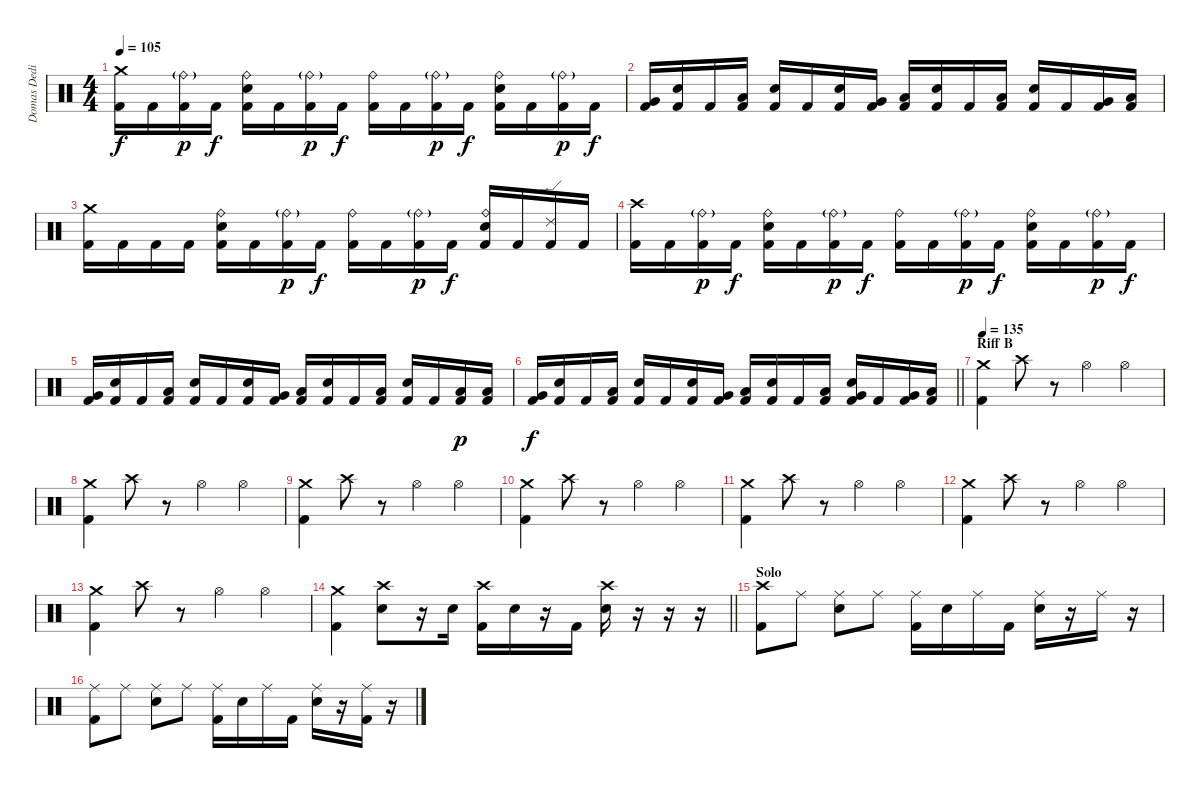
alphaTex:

\track ("Domas Dedinas" "Domas Dedi") {instrument percussion}
\staff {score}
\articulation defaults
\ts (4 4)
\tempo 105
\clef neutral
\ks c
("Crash medium (hit)" "Kick (hit) 2").16{dy f} "Kick (hit) 2".16 ("Ride (bell)"{g} "Kick (hit) 2").16{dy p} "Kick (hit) 2".16{dy f} ("Ride (bell)" "Snare (hit) 2" "Kick (hit) 2").16 "Kick (hit) 2".16 ("Ride (bell)"{g} "Kick (hit) 2").16{dy p} "Kick (hit) 2".16{dy f} ("Ride (bell)" "Kick (hit) 2").16 "Kick (hit) 2".16 ("Ride (bell)"{g} "Kick (hit) 2").16{dy p} "Kick (hit) 2".16{dy f} ("Ride (bell)" "Snare (hit) 2" "Kick (hit) 2").16 "Kick (hit) 2".16 ("Ride (bell)"{g} "Kick (hit) 2").16{dy p} "Kick (hit) 2".16{dy f} |
("Very Low Tom (hit)" "Kick (hit) 2").16 ("Snare (hit) 2" "Kick (hit) 2").16 "Kick (hit) 2".16 ("Low Floor Tom (hit)" "Kick (hit) 2").16 ("Snare (hit) 2" "Kick (hit) 2").16 "Kick (hit) 2".16 ("Snare (hit) 2" "Kick (hit) 2").16 ("Very Low Tom (hit)" "Kick (hit) 2").16 ("Low Floor Tom (hit)" "Kick (hit) 2").16 ("Snare (hit) 2" "Kick (hit) 2").16 "Kick (hit) 2".16 ("Low Floor Tom (hit)" "Kick (hit) 2").16 ("Snare (hit) 2" "Kick (hit) 2").16 "Kick (hit) 2".16 ("Very Low Tom (hit)" "Kick (hit) 2").16 ("Low Floor Tom (hit)" "Kick (hit) 2").16 |
("Crash medium (hit)" "Kick (hit) 2").16 "Kick (hit) 2".16 "Kick (hit) 2".16 "Kick (hit) 2".16 ("Ride (bell)" "Snare (hit) 2" "Kick (hit) 2").16 "Kick (hit) 2".16 ("Ride (bell)"{g} "Kick (hit) 2").16{dy p} "Kick (hit) 2".16{dy f} ("Ride (bell)" "Kick (hit) 2").16 "Kick (hit) 2".16 ("Ride (bell)"{g} "Kick (hit) 2").16{dy p} "Kick (hit) 2".16{dy f} ("Ride (bell)" "Snare (hit) 2" "Kick (hit) 2").16 "Kick (hit) 2".16 ("Ride (edge) 2" "Kick (hit) 2").16 "Kick (hit) 2".16 |
("Crash high (hit)" "Kick (hit) 2").16 "Kick (hit) 2".16 ("Ride (bell)"{g} "Kick (hit) 2").16{dy p} "Kick (hit) 2".16{dy f} ("Ride (bell)" "Snare (hit) 2" "Kick (hit) 2").16 "Kick (hit) 2".16 ("Ride (bell)"{g} "Kick (hit) 2").16{dy p} "Kick (hit) 2".16{dy f} ("Ride (bell)" "Kick (hit) 2").16 "Kick (hit) 2".16 ("Ride (bell)"{g} "Kick (hit) 2").16{dy p} "Kick (hit) 2".16{dy f} ("Ride (bell)" "Snare (hit) 2" "Kick (hit) 2").16 "Kick (hit) 2".16 ("Ride (bell)"{g} "Kick (hit) 2").16{dy p} "Kick (hit) 2".16{dy f} |
("Very Low Tom (hit)" "Kick (hit) 2").16 ("Snare (hit) 2" "Kick (hit) 2").16 "Kick (hit) 2".16 ("Low Floor Tom (hit)" "Kick (hit) 2").16 ("Snare (hit) 2" "Kick (hit) 2").16 "Kick (hit) 2".16 ("Snare (hit) 2" "Kick (hit) 2").16 ("Very Low Tom (hit)" "Kick (hit) 2").16 ("Low Floor Tom (hit)" "Kick (hit) 2").16 ("Snare (hit) 2" "Kick (hit) 2").16 "Kick (hit) 2".16 ("Low Floor Tom (hit)" "Kick (hit) 2").16 ("Snare (hit) 2" "Kick (hit) 2").16 "Kick (hit) 2".16 ("Low Floor Tom (hit)" "Kick (hit) 2").16{dy p} ("Low Floor Tom (hit)" "Kick (hit) 2").16 |
\barLineRight lightlight
("Very Low Tom (hit)" "Kick (hit) 2").16{dy f} ("Snare (hit) 2" "Kick (hit) 2").16 "Kick (hit) 2".16 ("Low Floor Tom (hit)" "Kick (hit) 2").16 ("Snare (hit) 2" "Kick (hit) 2").16 "Kick (hit) 2".16 ("Snare (hit) 2" "Kick (hit) 2").16 ("Very Low Tom (hit)" "Kick (hit) 2").16 ("Low Floor Tom (hit)" "Kick (hit) 2").16 ("Snare (hit) 2" "Kick (hit) 2").16 "Kick (hit) 2".16 ("Low Floor Tom (hit)" "Kick (hit) 2").16 ("Very Low Tom (hit)" "Snare (hit) 2" "Kick (hit) 2").16 "Kick (hit) 2".16 ("Very Low Tom (hit)" "Kick (hit) 2").16 ("Low Floor Tom (hit)" "Kick (hit) 2").16 |
\section ("" "Riff B")
\tempo 135
("Crash medium (hit)" "Kick (hit) 2").4 "Crash high (hit)".8 r.8 "Hi-Hat (open)".4 "Hi-Hat (open)".4 |
("Crash medium (hit)" "Kick (hit) 2").4 "Crash high (hit)".8 r.8 "Hi-Hat (open)".4 "Hi-Hat (open)".4 |
("Crash medium (hit)" "Kick (hit) 2").4 "Crash high (hit)".8 r.8 "Hi-Hat (open)".4 "Hi-Hat (open)".4 |
("Crash medium (hit)" "Kick (hit) 2").4 "Crash high (hit)".8 r.8 "Hi-Hat (open)".4 "Hi-Hat (open)".4 |
("Crash medium (hit)" "Kick (hit) 2").4 "Crash high (hit)".8 r.8 "Hi-Hat (open)".4 "Hi-Hat (open)".4 |
("Crash medium (hit)" "Kick (hit) 2").4 "Crash high (hit)".8 r.8 "Hi-Hat (open)".4 "Hi-Hat (open)".4 |
("Crash medium (hit)" "Kick (hit) 2").4 "Crash high (hit)".8 r.8 "Hi-Hat (open)".4 "Hi-Hat (open)".4 |
\barLineRight lightlight
("Crash medium (hit)" "Kick (hit) 2").4 ("Crash high (hit)" "Snare (hit) 2").8 r.16 "Snare (hit) 2".16 ("Crash high (hit)" "Kick (hit) 2").16 "Snare (hit) 2".16 r.16 "Kick (hit) 2".16 ("Crash high (hit)" "Snare (hit) 2").16 r.16 r.16 r.16 |
\section ("" "Solo")
("Crash high (hit)" "Kick (hit) 2").8 "Ride (middle)".8 ("Ride (middle)" "Snare (hit) 2").8 "Ride (middle)".8 ("Ride (middle)" "Kick (hit) 2").16 "Snare (hit) 2".16 "Ride (middle)".16 "Kick (hit) 2".16 ("Ride (middle)" "Snare (hit) 2").16 r.16 "Ride (middle)".16 r.16 |
("Ride (middle)" "Kick (hit) 2").8 "Ride (middle)".8 ("Ride (middle)" "Snare (hit) 2").8 "Ride (middle)".8 ("Ride (middle)" "Kick (hit) 2").16 "Snare (hit) 2".16 "Ride (middle)".16 "Kick (hit) 2".16 ("Ride (middle)" "Snare (hit) 2").16 r.16 ("Ride (middle)" "Kick (hit) 2").16 r.16
